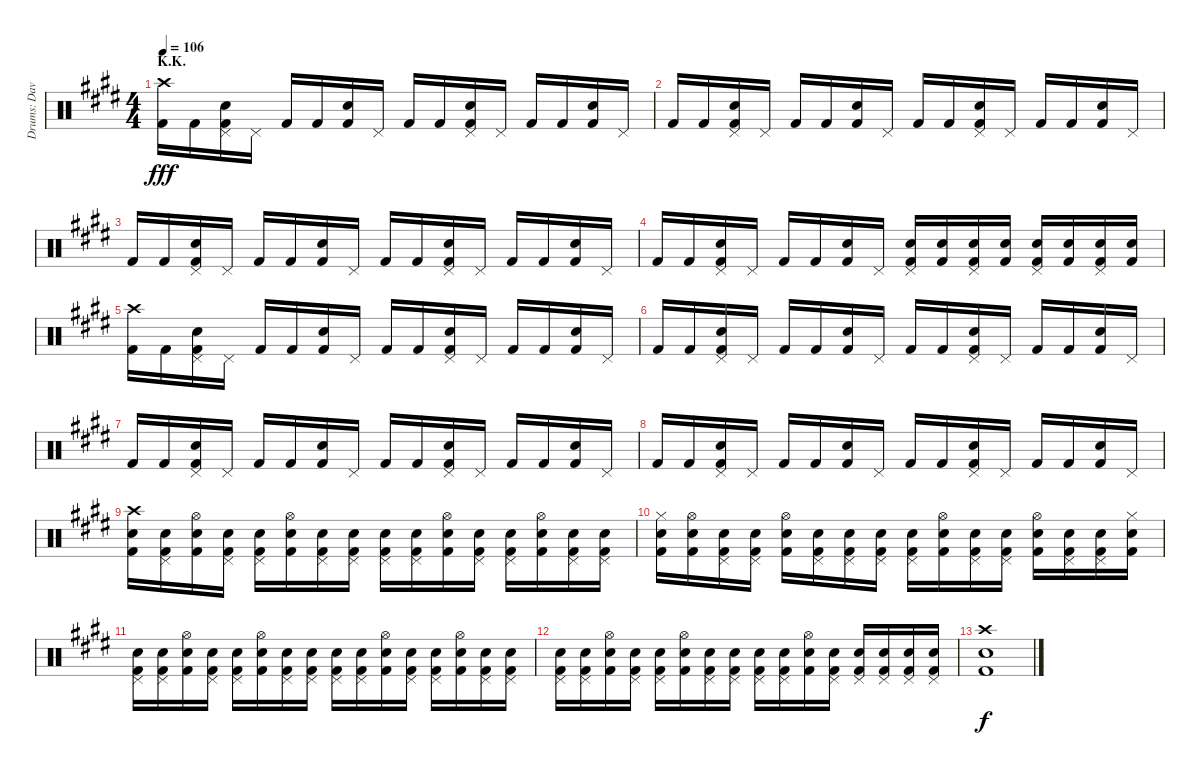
\track ("Drums: Dave" "Drums: Dav") {instrument percussion}
\staff {score}
\articulation defaults
\ts (4 4)
\section ("" "K.K.")
\tempo 106
\clef neutral
\ks e
("Crash high (hit)" "Kick (hit) 2").16{dy fff} "Kick (hit) 2".16 ("Pedal Hi-Hat (hit)" "Snare (hit) 2" "Kick (hit) 2").16 "Pedal Hi-Hat (hit)".16 "Kick (hit) 2".16 "Kick (hit) 2".16 ("Snare (hit) 2" "Kick (hit) 2").16 "Pedal Hi-Hat (hit)".16 "Kick (hit) 2".16 "Kick (hit) 2".16 ("Pedal Hi-Hat (hit)" "Snare (hit) 2" "Kick (hit) 2").16 "Pedal Hi-Hat (hit)".16 "Kick (hit) 2".16 "Kick (hit) 2".16 ("Snare (hit) 2" "Kick (hit) 2").16 "Pedal Hi-Hat (hit)".16 |
"Kick (hit) 2".16 "Kick (hit) 2".16 ("Pedal Hi-Hat (hit)" "Snare (hit) 2" "Kick (hit) 2").16 "Pedal Hi-Hat (hit)".16 "Kick (hit) 2".16 "Kick (hit) 2".16 ("Snare (hit) 2" "Kick (hit) 2").16 "Pedal Hi-Hat (hit)".16 "Kick (hit) 2".16 "Kick (hit) 2".16 ("Pedal Hi-Hat (hit)" "Snare (hit) 2" "Kick (hit) 2").16 "Pedal Hi-Hat (hit)".16 "Kick (hit) 2".16 "Kick (hit) 2".16 ("Snare (hit) 2" "Kick (hit) 2").16 "Pedal Hi-Hat (hit)".16 |
"Kick (hit) 2".16 "Kick (hit) 2".16 ("Pedal Hi-Hat (hit)" "Snare (hit) 2" "Kick (hit) 2").16 "Pedal Hi-Hat (hit)".16 "Kick (hit) 2".16 "Kick (hit) 2".16 ("Snare (hit) 2" "Kick (hit) 2").16 "Pedal Hi-Hat (hit)".16 "Kick (hit) 2".16 "Kick (hit) 2".16 ("Pedal Hi-Hat (hit)" "Snare (hit) 2" "Kick (hit) 2").16 "Pedal Hi-Hat (hit)".16 "Kick (hit) 2".16 "Kick (hit) 2".16 ("Snare (hit) 2" "Kick (hit) 2").16 "Pedal Hi-Hat (hit)".16 |
"Kick (hit) 2".16 "Kick (hit) 2".16 ("Pedal Hi-Hat (hit)" "Snare (hit) 2" "Kick (hit) 2").16 "Pedal Hi-Hat (hit)".16 "Kick (hit) 2".16 "Kick (hit) 2".16 ("Snare (hit) 2" "Kick (hit) 2").16 "Pedal Hi-Hat (hit)".16 ("Pedal Hi-Hat (hit)" "Snare (hit) 2" "Kick (hit) 2").16 ("Snare (hit) 2" "Kick (hit) 2").16 ("Pedal Hi-Hat (hit)" "Snare (hit) 2" "Kick (hit) 2").16 ("Snare (hit) 2" "Kick (hit) 2").16 ("Pedal Hi-Hat (hit)" "Snare (hit) 2" "Kick (hit) 2").16 ("Snare (hit) 2" "Kick (hit) 2").16 ("Pedal Hi-Hat (hit)" "Snare (hit) 2" "Kick (hit) 2").16 ("Snare (hit) 2" "Kick (hit) 2").16 |
("Crash high (hit)" "Kick (hit) 2").16 "Kick (hit) 2".16 ("Pedal Hi-Hat (hit)" "Snare (hit) 2" "Kick (hit) 2").16 "Pedal Hi-Hat (hit)".16 "Kick (hit) 2".16 "Kick (hit) 2".16 ("Snare (hit) 2" "Kick (hit) 2").16 "Pedal Hi-Hat (hit)".16 "Kick (hit) 2".16 "Kick (hit) 2".16 ("Pedal Hi-Hat (hit)" "Snare (hit) 2" "Kick (hit) 2").16 "Pedal Hi-Hat (hit)".16 "Kick (hit) 2".16 "Kick (hit) 2".16 ("Snare (hit) 2" "Kick (hit) 2").16 "Pedal Hi-Hat (hit)".16 |
"Kick (hit) 2".16 "Kick (hit) 2".16 ("Pedal Hi-Hat (hit)" "Snare (hit) 2" "Kick (hit) 2").16 "Pedal Hi-Hat (hit)".16 "Kick (hit) 2".16 "Kick (hit) 2".16 ("Snare (hit) 2" "Kick (hit) 2").16 "Pedal Hi-Hat (hit)".16 "Kick (hit) 2".16 "Kick (hit) 2".16 ("Pedal Hi-Hat (hit)" "Snare (hit) 2" "Kick (hit) 2").16 "Pedal Hi-Hat (hit)".16 "Kick (hit) 2".16 "Kick (hit) 2".16 ("Snare (hit) 2" "Kick (hit) 2").16 "Pedal Hi-Hat (hit)".16 |
"Kick (hit) 2".16 "Kick (hit) 2".16 ("Pedal Hi-Hat (hit)" "Snare (hit) 2" "Kick (hit) 2").16 "Pedal Hi-Hat (hit)".16 "Kick (hit) 2".16 "Kick (hit) 2".16 ("Snare (hit) 2" "Kick (hit) 2").16 "Pedal Hi-Hat (hit)".16 "Kick (hit) 2".16 "Kick (hit) 2".16 ("Pedal Hi-Hat (hit)" "Snare (hit) 2" "Kick (hit) 2").16 "Pedal Hi-Hat (hit)".16 "Kick (hit) 2".16 "Kick (hit) 2".16 ("Snare (hit) 2" "Kick (hit) 2").16 "Pedal Hi-Hat (hit)".16 |
"Kick (hit) 2".16 "Kick (hit) 2".16 ("Pedal Hi-Hat (hit)" "Snare (hit) 2" "Kick (hit) 2").16 "Pedal Hi-Hat (hit)".16 "Kick (hit) 2".16 "Kick (hit) 2".16 ("Snare (hit) 2" "Kick (hit) 2").16 "Pedal Hi-Hat (hit)".16 "Kick (hit) 2".16 "Kick (hit) 2".16 ("Pedal Hi-Hat (hit)" "Snare (hit) 2" "Kick (hit) 2").16 "Pedal Hi-Hat (hit)".16 "Kick (hit) 2".16 "Kick (hit) 2".16 ("Snare (hit) 2" "Kick (hit) 2").16 "Pedal Hi-Hat (hit)".16 |
("Crash high (hit)" "Electric Snare (hit)" "Kick (hit) 2").16 ("Pedal Hi-Hat (hit)" "Electric Snare (hit)" "Kick (hit) 2").16 ("Hi-Hat (open)" "Electric Snare (hit)" "Kick (hit) 2").16 ("Pedal Hi-Hat (hit)" "Electric Snare (hit)" "Kick (hit) 2").16 ("Pedal Hi-Hat (hit)" "Electric Snare (hit)" "Kick (hit) 2").16 ("Hi-Hat (open)" "Electric Snare (hit)" "Kick (hit) 2").16 ("Pedal Hi-Hat (hit)" "Electric Snare (hit)" "Kick (hit) 2").16 ("Pedal Hi-Hat (hit)" "Electric Snare (hit)" "Kick (hit) 2").16 ("Pedal Hi-Hat (hit)" "Electric Snare (hit)" "Kick (hit) 2").16 ("Pedal Hi-Hat (hit)" "Electric Snare (hit)" "Kick (hit) 2").16 ("Hi-Hat (open)" "Electric Snare (hit)" "Kick (hit) 2").16 ("Pedal Hi-Hat (hit)" "Electric Snare (hit)" "Kick (hit) 2").16 ("Pedal Hi-Hat (hit)" "Electric Snare (hit)" "Kick (hit) 2").16 ("Hi-Hat (open)" "Electric Snare (hit)" "Kick (hit) 2").16 ("Pedal Hi-Hat (hit)" "Electric Snare (hit)" "Kick (hit) 2").16 ("Pedal Hi-Hat (hit)" "Electric Snare (hit)" "Kick (hit) 2").16 |
("Hi-Hat (closed)" "Electric Snare (hit)" "Kick (hit) 2").16 ("Hi-Hat (open)" "Electric Snare (hit)" "Kick (hit) 2").16 ("Pedal Hi-Hat (hit)" "Electric Snare (hit)" "Kick (hit) 2").16 ("Pedal Hi-Hat (hit)" "Electric Snare (hit)" "Kick (hit) 2").16 ("Hi-Hat (open)" "Electric Snare (hit)" "Kick (hit) 2").16 ("Pedal Hi-Hat (hit)" "Electric Snare (hit)" "Kick (hit) 2").16 ("Pedal Hi-Hat (hit)" "Electric Snare (hit)" "Kick (hit) 2").16 ("Pedal Hi-Hat (hit)" "Electric Snare (hit)" "Kick (hit) 2").16 ("Pedal Hi-Hat (hit)" "Electric Snare (hit)" "Kick (hit) 2").16 ("Hi-Hat (open)" "Electric Snare (hit)" "Kick (hit) 2").16 ("Pedal Hi-Hat (hit)" "Electric Snare (hit)" "Kick (hit) 2").16 ("Pedal Hi-Hat (hit)" "Electric Snare (hit)" "Kick (hit) 2").16 ("Hi-Hat (open)" "Electric Snare (hit)" "Kick (hit) 2").16 ("Pedal Hi-Hat (hit)" "Electric Snare (hit)" "Kick (hit) 2").16 ("Pedal Hi-Hat (hit)" "Electric Snare (hit)" "Kick (hit) 2").16 ("Hi-Hat (closed)" "Electric Snare (hit)" "Kick (hit) 2").16 |
("Pedal Hi-Hat (hit)" "Electric Snare (hit)" "Kick (hit) 2").16 ("Pedal Hi-Hat (hit)" "Electric Snare (hit)" "Kick (hit) 2").16 ("Hi-Hat (open)" "Electric Snare (hit)" "Kick (hit) 2").16 ("Pedal Hi-Hat (hit)" "Electric Snare (hit)" "Kick (hit) 2").16 ("Pedal Hi-Hat (hit)" "Electric Snare (hit)" "Kick (hit) 2").16 ("Hi-Hat (open)" "Electric Snare (hit)" "Kick (hit) 2").16 ("Pedal Hi-Hat (hit)" "Electric Snare (hit)" "Kick (hit) 2").16 ("Pedal Hi-Hat (hit)" "Electric Snare (hit)" "Kick (hit) 2").16 ("Pedal Hi-Hat (hit)" "Electric Snare (hit)" "Kick (hit) 2").16 ("Pedal Hi-Hat (hit)" "Electric Snare (hit)" "Kick (hit) 2").16 ("Hi-Hat (open)" "Electric Snare (hit)" "Kick (hit) 2").16 ("Pedal Hi-Hat (hit)" "Electric Snare (hit)" "Kick (hit) 2").16 ("Pedal Hi-Hat (hit)" "Electric Snare (hit)" "Kick (hit) 2").16 ("Hi-Hat (open)" "Electric Snare (hit)" "Kick (hit) 2").16 ("Pedal Hi-Hat (hit)" "Electric Snare (hit)" "Kick (hit) 2").16 ("Pedal Hi-Hat (hit)" "Electric Snare (hit)" "Kick (hit) 2").16 |
("Pedal Hi-Hat (hit)" "Snare (hit) 2" "Kick (hit) 2").16 ("Pedal Hi-Hat (hit)" "Electric Snare (hit)" "Kick (hit) 2").16 ("Hi-Hat (open)" "Electric Snare (hit)" "Kick (hit) 2").16 ("Pedal Hi-Hat (hit)" "Snare (hit) 2" "Kick (hit) 2").16 ("Pedal Hi-Hat (hit)" "Electric Snare (hit)" "Kick (hit) 2").16 ("Hi-Hat (open)" "Electric Snare (hit)" "Kick (hit) 2").16 ("Pedal Hi-Hat (hit)" "Snare (hit) 2" "Kick (hit) 2").16 ("Pedal Hi-Hat (hit)" "Electric Snare (hit)" "Kick (hit) 2").16 ("Pedal Hi-Hat (hit)" "Snare (hit) 2" "Kick (hit) 2").16 ("Pedal Hi-Hat (hit)" "Electric Snare (hit)" "Kick (hit) 2").16 ("Hi-Hat (open)" "Electric Snare (hit)" "Kick (hit) 2").16 ("Pedal Hi-Hat (hit)" "Snare (hit) 2" "Kick (hit) 2").16 ("Pedal Hi-Hat (hit)" "Snare (hit) 2" "Kick (hit) 2").16 ("Pedal Hi-Hat (hit)" "Snare (hit) 2" "Kick (hit) 2").16 ("Pedal Hi-Hat (hit)" "Snare (hit) 2" "Kick (hit) 2").16 ("Pedal Hi-Hat (hit)" "Snare (hit) 2" "Kick (hit) 2").16 |
("Crash high (hit)" "Snare (hit) 2" "Kick (hit) 2").1{dy f}
